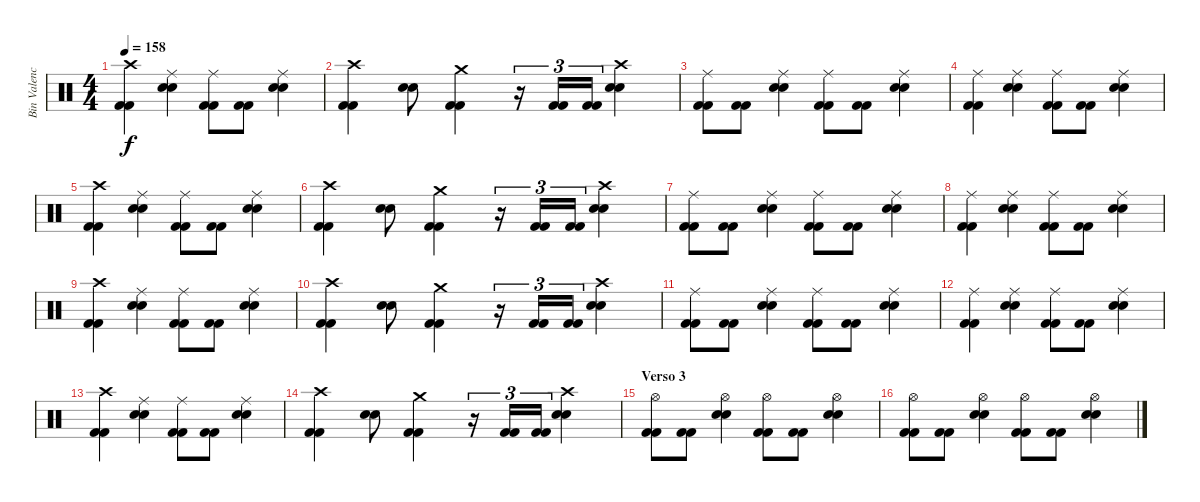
\track ("Bin Valencia (bateria)" "Bin Valenc") {instrument percussion}
\staff {score}
\articulation defaults
\ts (4 4)
\tempo 158
\clef neutral
\ks c
("Crash high (hit)" "Kick (hit) 2" "Kick (hit) 2").4{dy f} ("Ride (middle)" "Snare (hit) 2" "Snare (hit) 2").4 ("Ride (middle)" "Kick (hit) 2" "Kick (hit) 2").8 ("Kick (hit) 2" "Kick (hit) 2").8 ("Ride (middle)" "Snare (hit) 2" "Snare (hit) 2").4 |
("Crash high (hit)" "Kick (hit) 2" "Kick (hit) 2").4 ("Snare (hit) 2" "Snare (hit) 2").8 ("Crash medium (hit)" "Kick (hit) 2" "Kick (hit) 2").4 r.16{tu (3 2)} ("Kick (hit) 2" "Kick (hit) 2").16{tu (3 2)} ("Kick (hit) 2" "Kick (hit) 2").16{tu (3 2)} ("Crash high (hit)" "Snare (hit) 2" "Snare (hit) 2").4 |
("Ride (middle)" "Kick (hit) 2" "Kick (hit) 2").8 ("Kick (hit) 2" "Kick (hit) 2").8 ("Ride (middle)" "Snare (hit) 2" "Snare (hit) 2").4 ("Ride (middle)" "Kick (hit) 2" "Kick (hit) 2").8 ("Kick (hit) 2" "Kick (hit) 2").8 ("Ride (middle)" "Snare (hit) 2" "Snare (hit) 2").4 |
("Ride (middle)" "Kick (hit) 2" "Kick (hit) 2").4 ("Ride (middle)" "Snare (hit) 2" "Snare (hit) 2").4 ("Ride (middle)" "Kick (hit) 2" "Kick (hit) 2").8 ("Kick (hit) 2" "Kick (hit) 2").8 ("Ride (middle)" "Snare (hit) 2" "Snare (hit) 2").4 |
("Crash high (hit)" "Kick (hit) 2" "Kick (hit) 2").4 ("Ride (middle)" "Snare (hit) 2" "Snare (hit) 2").4 ("Ride (middle)" "Kick (hit) 2" "Kick (hit) 2").8 ("Kick (hit) 2" "Kick (hit) 2").8 ("Ride (middle)" "Snare (hit) 2" "Snare (hit) 2").4 |
("Crash high (hit)" "Kick (hit) 2" "Kick (hit) 2").4 ("Snare (hit) 2" "Snare (hit) 2").8 ("Crash medium (hit)" "Kick (hit) 2" "Kick (hit) 2").4 r.16{tu (3 2)} ("Kick (hit) 2" "Kick (hit) 2").16{tu (3 2)} ("Kick (hit) 2" "Kick (hit) 2").16{tu (3 2)} ("Crash high (hit)" "Snare (hit) 2" "Snare (hit) 2").4 |
("Ride (middle)" "Kick (hit) 2" "Kick (hit) 2").8 ("Kick (hit) 2" "Kick (hit) 2").8 ("Ride (middle)" "Snare (hit) 2" "Snare (hit) 2").4 ("Ride (middle)" "Kick (hit) 2" "Kick (hit) 2").8 ("Kick (hit) 2" "Kick (hit) 2").8 ("Ride (middle)" "Snare (hit) 2" "Snare (hit) 2").4 |
("Ride (middle)" "Kick (hit) 2" "Kick (hit) 2").4 ("Ride (middle)" "Snare (hit) 2" "Snare (hit) 2").4 ("Ride (middle)" "Kick (hit) 2" "Kick (hit) 2").8 ("Kick (hit) 2" "Kick (hit) 2").8 ("Ride (middle)" "Snare (hit) 2" "Snare (hit) 2").4 |
("Crash high (hit)" "Kick (hit) 2" "Kick (hit) 2").4 ("Ride (middle)" "Snare (hit) 2" "Snare (hit) 2").4 ("Ride (middle)" "Kick (hit) 2" "Kick (hit) 2").8 ("Kick (hit) 2" "Kick (hit) 2").8 ("Ride (middle)" "Snare (hit) 2" "Snare (hit) 2").4 |
("Crash high (hit)" "Kick (hit) 2" "Kick (hit) 2").4 ("Snare (hit) 2" "Snare (hit) 2").8 ("Crash medium (hit)" "Kick (hit) 2" "Kick (hit) 2").4 r.16{tu (3 2)} ("Kick (hit) 2" "Kick (hit) 2").16{tu (3 2)} ("Kick (hit) 2" "Kick (hit) 2").16{tu (3 2)} ("Crash high (hit)" "Snare (hit) 2" "Snare (hit) 2").4 |
("Ride (middle)" "Kick (hit) 2" "Kick (hit) 2").8 ("Kick (hit) 2" "Kick (hit) 2").8 ("Ride (middle)" "Snare (hit) 2" "Snare (hit) 2").4 ("Ride (middle)" "Kick (hit) 2" "Kick (hit) 2").8 ("Kick (hit) 2" "Kick (hit) 2").8 ("Ride (middle)" "Snare (hit) 2" "Snare (hit) 2").4 |
("Ride (middle)" "Kick (hit) 2" "Kick (hit) 2").4 ("Ride (middle)" "Snare (hit) 2" "Snare (hit) 2").4 ("Ride (middle)" "Kick (hit) 2" "Kick (hit) 2").8 ("Kick (hit) 2" "Kick (hit) 2").8 ("Ride (middle)" "Snare (hit) 2" "Snare (hit) 2").4 |
("Crash high (hit)" "Kick (hit) 2" "Kick (hit) 2").4 ("Ride (middle)" "Snare (hit) 2" "Snare (hit) 2").4 ("Ride (middle)" "Kick (hit) 2" "Kick (hit) 2").8 ("Kick (hit) 2" "Kick (hit) 2").8 ("Ride (middle)" "Snare (hit) 2" "Snare (hit) 2").4 |
("Crash high (hit)" "Kick (hit) 2" "Kick (hit) 2").4 ("Snare (hit) 2" "Snare (hit) 2").8 ("Crash medium (hit)" "Kick (hit) 2" "Kick (hit) 2").4 r.16{tu (3 2)} ("Kick (hit) 2" "Kick (hit) 2").16{tu (3 2)} ("Kick (hit) 2" "Kick (hit) 2").16{tu (3 2)} ("Crash high (hit)" "Snare (hit) 2" "Snare (hit) 2").4 |
\section ("" "Verso 3")
("Hi-Hat (open)" "Kick (hit) 2" "Kick (hit) 2").8 ("Kick (hit) 2" "Kick (hit) 2").8 ("Hi-Hat (open)" "Snare (hit) 2" "Snare (hit) 2").4 ("Hi-Hat (open)" "Kick (hit) 2" "Kick (hit) 2").8 ("Kick (hit) 2" "Kick (hit) 2").8 ("Hi-Hat (open)" "Snare (hit) 2" "Snare (hit) 2").4 |
("Hi-Hat (open)" "Kick (hit) 2" "Kick (hit) 2").8 ("Kick (hit) 2" "Kick (hit) 2").8 ("Hi-Hat (open)" "Snare (hit) 2" "Snare (hit) 2").4 ("Hi-Hat (open)" "Kick (hit) 2" "Kick (hit) 2").8 ("Kick (hit) 2" "Kick (hit) 2").8 ("Hi-Hat (open)" "Snare (hit) 2" "Snare (hit) 2").4
